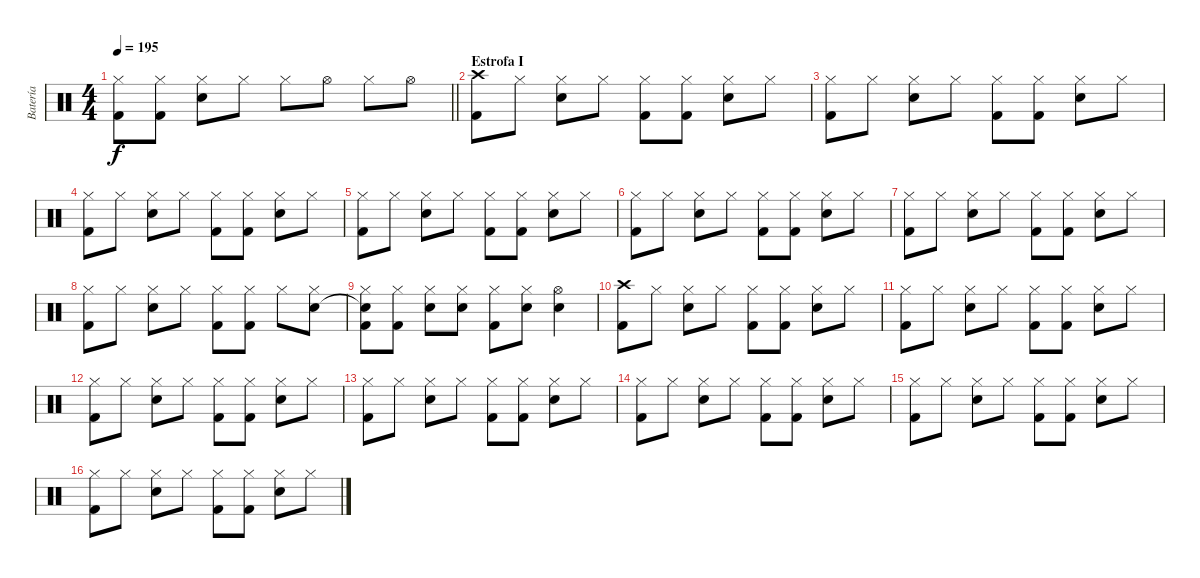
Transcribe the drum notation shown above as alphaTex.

\track ("Batería" "Batería") {instrument percussion}
\staff {score}
\articulation defaults
\ts (4 4)
\tempo 195
\clef neutral
\barLineRight lightlight
\ks c
("Hi-Hat (closed)" "Kick (hit) 2").8{dy f} ("Hi-Hat (closed)" "Kick (hit) 2").8 ("Hi-Hat (closed)" "Snare (hit) 2").8 "Hi-Hat (closed)".8 "Hi-Hat (closed)".8 "Hi-Hat (open)".8 "Hi-Hat (closed)".8 "Hi-Hat (open)".8 |
\section ("" "Estrofa I")
("Crash high (hit)" "Kick (hit) 2").8 "Hi-Hat (closed)".8 ("Hi-Hat (closed)" "Snare (hit) 2").8 "Hi-Hat (closed)".8 ("Hi-Hat (closed)" "Kick (hit) 2").8 ("Hi-Hat (closed)" "Kick (hit) 2").8 ("Hi-Hat (closed)" "Snare (hit) 2").8 "Hi-Hat (closed)".8 |
("Hi-Hat (closed)" "Kick (hit) 2").8 "Hi-Hat (closed)".8 ("Hi-Hat (closed)" "Snare (hit) 2").8 "Hi-Hat (closed)".8 ("Hi-Hat (closed)" "Kick (hit) 2").8 ("Hi-Hat (closed)" "Kick (hit) 2").8 ("Hi-Hat (closed)" "Snare (hit) 2").8 "Hi-Hat (closed)".8 |
("Hi-Hat (closed)" "Kick (hit) 2").8 "Hi-Hat (closed)".8 ("Hi-Hat (closed)" "Snare (hit) 2").8 "Hi-Hat (closed)".8 ("Hi-Hat (closed)" "Kick (hit) 2").8 ("Hi-Hat (closed)" "Kick (hit) 2").8 ("Hi-Hat (closed)" "Snare (hit) 2").8 "Hi-Hat (closed)".8 |
("Hi-Hat (closed)" "Kick (hit) 2").8 "Hi-Hat (closed)".8 ("Hi-Hat (closed)" "Snare (hit) 2").8 "Hi-Hat (closed)".8 ("Hi-Hat (closed)" "Kick (hit) 2").8 ("Hi-Hat (closed)" "Kick (hit) 2").8 ("Hi-Hat (closed)" "Snare (hit) 2").8 "Hi-Hat (closed)".8 |
("Hi-Hat (closed)" "Kick (hit) 2").8 "Hi-Hat (closed)".8 ("Hi-Hat (closed)" "Snare (hit) 2").8 "Hi-Hat (closed)".8 ("Hi-Hat (closed)" "Kick (hit) 2").8 ("Hi-Hat (closed)" "Kick (hit) 2").8 ("Hi-Hat (closed)" "Snare (hit) 2").8 "Hi-Hat (closed)".8 |
("Hi-Hat (closed)" "Kick (hit) 2").8 "Hi-Hat (closed)".8 ("Hi-Hat (closed)" "Snare (hit) 2").8 "Hi-Hat (closed)".8 ("Hi-Hat (closed)" "Kick (hit) 2").8 ("Hi-Hat (closed)" "Kick (hit) 2").8 ("Hi-Hat (closed)" "Snare (hit) 2").8 "Hi-Hat (closed)".8 |
("Hi-Hat (closed)" "Kick (hit) 2").8 "Hi-Hat (closed)".8 ("Hi-Hat (closed)" "Snare (hit) 2").8 "Hi-Hat (closed)".8 ("Hi-Hat (closed)" "Kick (hit) 2").8 ("Hi-Hat (closed)" "Kick (hit) 2").8 "Hi-Hat (closed)".8 ("Hi-Hat (closed)" "Snare (hit) 2").8 |
("Hi-Hat (closed)" "Snare (hit)"{t} "Kick (hit) 2").8 ("Hi-Hat (closed)" "Kick (hit) 2").8 ("Hi-Hat (closed)" "Snare (hit) 2").8 ("Hi-Hat (closed)" "Snare (hit) 2").8 ("Hi-Hat (closed)" "Kick (hit) 2").8 ("Hi-Hat (closed)" "Snare (hit) 2").8 ("Hi-Hat (open)" "Snare (hit) 2").4 |
("Crash high (hit)" "Kick (hit) 2").8 "Hi-Hat (closed)".8 ("Hi-Hat (closed)" "Snare (hit) 2").8 "Hi-Hat (closed)".8 ("Hi-Hat (closed)" "Kick (hit) 2").8 ("Hi-Hat (closed)" "Kick (hit) 2").8 ("Hi-Hat (closed)" "Snare (hit) 2").8 "Hi-Hat (closed)".8 |
("Hi-Hat (closed)" "Kick (hit) 2").8 "Hi-Hat (closed)".8 ("Hi-Hat (closed)" "Snare (hit) 2").8 "Hi-Hat (closed)".8 ("Hi-Hat (closed)" "Kick (hit) 2").8 ("Hi-Hat (closed)" "Kick (hit) 2").8 ("Hi-Hat (closed)" "Snare (hit) 2").8 "Hi-Hat (closed)".8 |
("Hi-Hat (closed)" "Kick (hit) 2").8 "Hi-Hat (closed)".8 ("Hi-Hat (closed)" "Snare (hit) 2").8 "Hi-Hat (closed)".8 ("Hi-Hat (closed)" "Kick (hit) 2").8 ("Hi-Hat (closed)" "Kick (hit) 2").8 ("Hi-Hat (closed)" "Snare (hit) 2").8 "Hi-Hat (closed)".8 |
("Hi-Hat (closed)" "Kick (hit) 2").8 "Hi-Hat (closed)".8 ("Hi-Hat (closed)" "Snare (hit) 2").8 "Hi-Hat (closed)".8 ("Hi-Hat (closed)" "Kick (hit) 2").8 ("Hi-Hat (closed)" "Kick (hit) 2").8 ("Hi-Hat (closed)" "Snare (hit) 2").8 "Hi-Hat (closed)".8 |
("Hi-Hat (closed)" "Kick (hit) 2").8 "Hi-Hat (closed)".8 ("Hi-Hat (closed)" "Snare (hit) 2").8 "Hi-Hat (closed)".8 ("Hi-Hat (closed)" "Kick (hit) 2").8 ("Hi-Hat (closed)" "Kick (hit) 2").8 ("Hi-Hat (closed)" "Snare (hit) 2").8 "Hi-Hat (closed)".8 |
("Hi-Hat (closed)" "Kick (hit) 2").8 "Hi-Hat (closed)".8 ("Hi-Hat (closed)" "Snare (hit) 2").8 "Hi-Hat (closed)".8 ("Hi-Hat (closed)" "Kick (hit) 2").8 ("Hi-Hat (closed)" "Kick (hit) 2").8 ("Hi-Hat (closed)" "Snare (hit) 2").8 "Hi-Hat (closed)".8 |
("Hi-Hat (closed)" "Kick (hit) 2").8 "Hi-Hat (closed)".8 ("Hi-Hat (closed)" "Snare (hit) 2").8 "Hi-Hat (closed)".8 ("Hi-Hat (closed)" "Kick (hit) 2").8 ("Hi-Hat (closed)" "Kick (hit) 2").8 ("Hi-Hat (closed)" "Snare (hit) 2").8 "Hi-Hat (closed)".8
